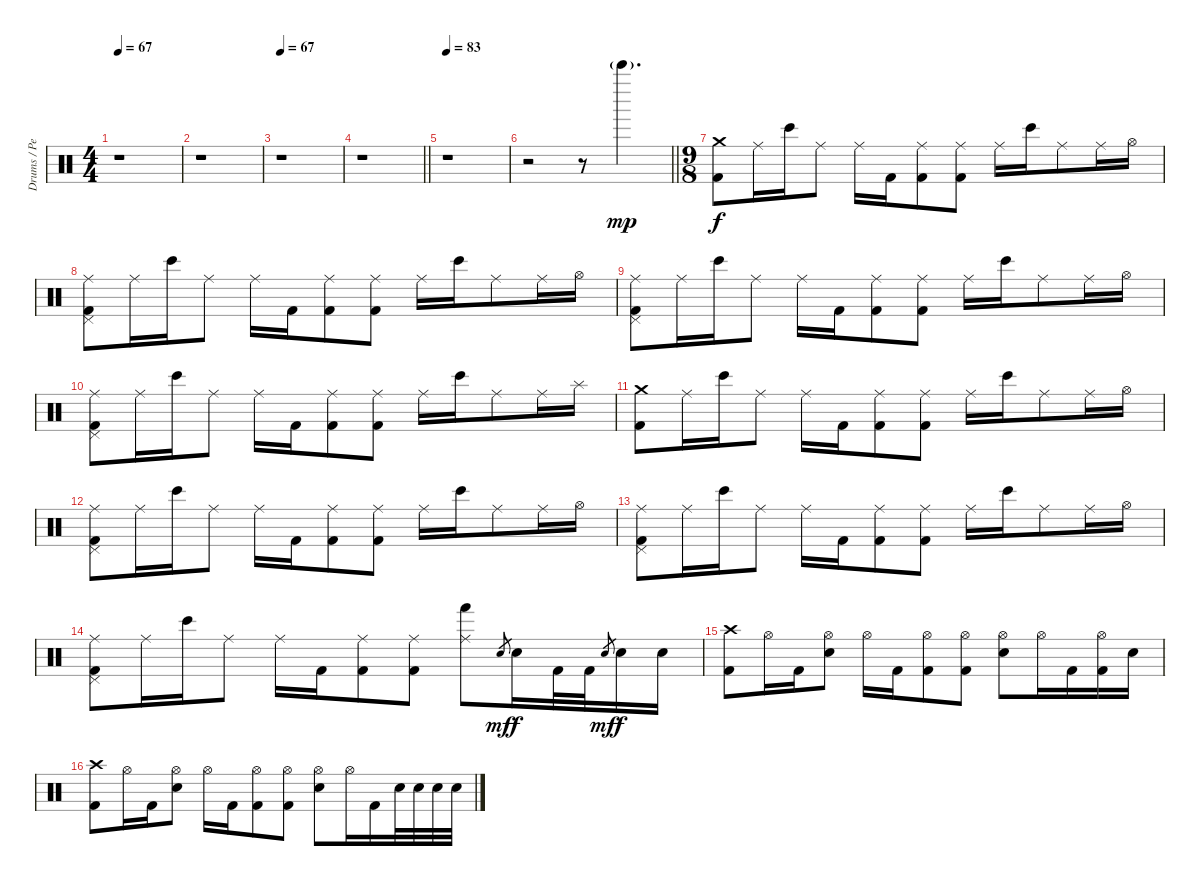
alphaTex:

\track ("Drums / Percussion" "Drums / Pe") {instrument percussion}
\staff {score}
\articulation defaults
\ts (4 4)
\tempo 67
\clef neutral
\ks c
r.1{dy mp} |
r.1 |
\tempo 67
r.1 |
\barLineRight lightlight
r.1 |
\section ("" "")
\tempo 83
r.1 |
\barLineRight lightlight
r.2 r.8 "Bell Tree (hit)"{g}.4{d} |
\ts (9 8)
\section ("" "")
("Crash medium (hit)" "Kick (hit) 2").8{dy f} "Ride (middle)".16 "Bongo High (hit)".16 "Ride (middle)".8 "Ride (middle)".16 "Kick (hit) 2".16 ("Ride (middle)" "Kick (hit) 2").8 ("Ride (middle)" "Kick (hit) 2").8 "Ride (middle)".16 "Bongo High (hit)".16 "Ride (middle)".8 "Ride (middle)".16 "Hi-Hat (open)".16 |
("Ride (middle)" "Pedal Hi-Hat (hit)" "Kick (hit) 2").8 "Ride (middle)".16 "Bongo High (hit)".16 "Ride (middle)".8 "Ride (middle)".16 "Kick (hit) 2".16 ("Ride (middle)" "Kick (hit) 2").8 ("Ride (middle)" "Kick (hit) 2").8 "Ride (middle)".16 "Bongo High (hit)".16 "Ride (middle)".8 "Ride (middle)".16 "Hi-Hat (open)".16 |
("Ride (middle)" "Pedal Hi-Hat (hit)" "Kick (hit) 2").8 "Ride (middle)".16 "Bongo High (hit)".16 "Ride (middle)".8 "Ride (middle)".16 "Kick (hit) 2".16 ("Ride (middle)" "Kick (hit) 2").8 ("Ride (middle)" "Kick (hit) 2").8 "Ride (middle)".16 "Bongo High (hit)".16 "Ride (middle)".8 "Ride (middle)".16 "Hi-Hat (open)".16 |
("Ride (middle)" "Pedal Hi-Hat (hit)" "Kick (hit) 2").8 "Ride (middle)".16 "Bongo High (hit)".16 "Ride (middle)".8 "Ride (middle)".16 "Kick (hit) 2".16 ("Ride (middle)" "Kick (hit) 2").8 ("Ride (middle)" "Kick (hit) 2").8 "Ride (middle)".16 "Bongo High (hit)".16 "Ride (middle)".8 "Ride (middle)".16 "Splash (hit)".16 |
("Crash medium (hit)" "Kick (hit) 2").8 "Ride (middle)".16 "Bongo High (hit)".16 "Ride (middle)".8 "Ride (middle)".16 "Kick (hit) 2".16 ("Ride (middle)" "Kick (hit) 2").8 ("Ride (middle)" "Kick (hit) 2").8 "Ride (middle)".16 "Bongo High (hit)".16 "Ride (middle)".8 "Ride (middle)".16 "Hi-Hat (open)".16 |
("Ride (middle)" "Pedal Hi-Hat (hit)" "Kick (hit) 2").8 "Ride (middle)".16 "Bongo High (hit)".16 "Ride (middle)".8 "Ride (middle)".16 "Kick (hit) 2".16 ("Ride (middle)" "Kick (hit) 2").8 ("Ride (middle)" "Kick (hit) 2").8 "Ride (middle)".16 "Bongo High (hit)".16 "Ride (middle)".8 "Ride (middle)".16 "Hi-Hat (open)".16 |
("Ride (middle)" "Pedal Hi-Hat (hit)" "Kick (hit) 2").8 "Ride (middle)".16 "Bongo High (hit)".16 "Ride (middle)".8 "Ride (middle)".16 "Kick (hit) 2".16 ("Ride (middle)" "Kick (hit) 2").8 ("Ride (middle)" "Kick (hit) 2").8 "Ride (middle)".16 "Bongo High (hit)".16 "Ride (middle)".8 "Ride (middle)".16 "Hi-Hat (open)".16 |
("Ride (middle)" "Pedal Hi-Hat (hit)" "Kick (hit) 2").8 "Ride (middle)".16 "Bongo High (hit)".16 "Ride (middle)".8 "Ride (middle)".16 "Kick (hit) 2".16 ("Ride (middle)" "Kick (hit) 2").8 ("Ride (middle)" "Kick (hit) 2").8 ("Ride (middle)" "Hand (hit)").8 "Snare (hit) 2".8{gr dy mf} "Snare (hit) 2".16{dy f} "Kick (hit) 2".32 "Kick (hit) 2".32 "Snare (hit) 2".8{gr dy mf} "Snare (hit) 2".16{dy f} "Snare (hit) 2".16 |
\section ("" "")
("Crash high (hit)" "Kick (hit) 2").8 "Hi-Hat (open)".16 "Kick (hit) 2".16 ("Hi-Hat (open)" "Snare (hit) 2").8 "Hi-Hat (open)".16 "Kick (hit) 2".16 ("Hi-Hat (open)" "Kick (hit) 2").8 ("Hi-Hat (open)" "Kick (hit) 2").8 ("Hi-Hat (open)" "Snare (hit) 2").8 "Hi-Hat (open)".16 "Kick (hit) 2".16 ("Hi-Hat (open)" "Kick (hit) 2").16 "Snare (hit) 2".16 |
("Crash high (hit)" "Kick (hit) 2").8 "Hi-Hat (open)".16 "Kick (hit) 2".16 ("Hi-Hat (open)" "Snare (hit) 2").8 "Hi-Hat (open)".16 "Kick (hit) 2".16 ("Hi-Hat (open)" "Kick (hit) 2").8 ("Hi-Hat (open)" "Kick (hit) 2").8 ("Hi-Hat (open)" "Snare (hit) 2").8 "Hi-Hat (open)".16 "Kick (hit) 2".16 "Snare (hit) 2".32 "Snare (hit) 2".32 "Snare (hit) 2".32 "Snare (hit) 2".32
